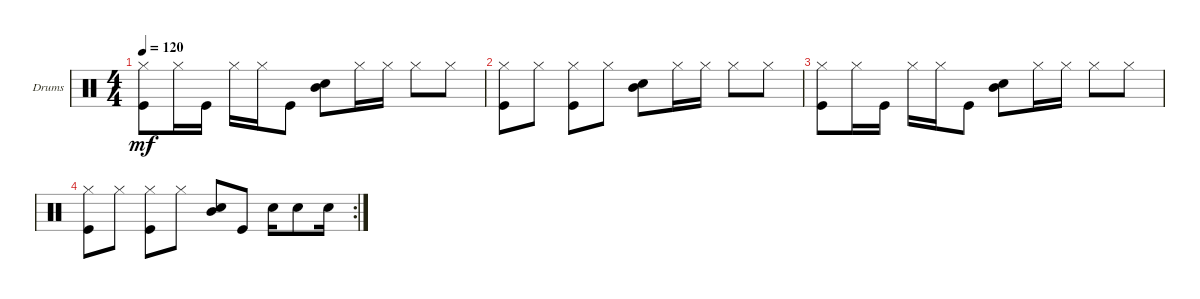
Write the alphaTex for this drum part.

\defaultSystemsLayout 4
\bracketExtendMode groupsimilarinstruments
\firstSystemTrackNameOrientation horizontal
\otherSystemsTrackNameOrientation horizontal
\track ("Drumkit" "Drums") {instrument percussion}
\staff {score}
\articulation defaults
\ts (4 4)
\tempo 120
\clef neutral
\ks c
("Kick (hit)" "Hi-Hat (closed)").8{dy mf} "Hi-Hat (closed)".16 "Kick (hit)".16 "Hi-Hat (closed)".16 "Hi-Hat (closed)".16 "Kick (hit)".8 ("Snare (hit) 2" "Mid Tom (hit)").8 "Hi-Hat (closed)".16 "Hi-Hat (closed)".16 "Hi-Hat (closed)".8 "Hi-Hat (closed)".8 |
("Kick (hit)" "Hi-Hat (closed)").8 "Hi-Hat (closed)".8 ("Kick (hit)" "Hi-Hat (closed)").8 "Hi-Hat (closed)".8 ("Snare (hit) 2" "Mid Tom (hit)").8 "Hi-Hat (closed)".16 "Hi-Hat (closed)".16 "Hi-Hat (closed)".8 "Hi-Hat (closed)".8 |
("Kick (hit)" "Hi-Hat (closed)").8 "Hi-Hat (closed)".16 "Kick (hit)".16 "Hi-Hat (closed)".16 "Hi-Hat (closed)".16 "Kick (hit)".8 ("Snare (hit) 2" "Mid Tom (hit)").8 "Hi-Hat (closed)".16 "Hi-Hat (closed)".16 "Hi-Hat (closed)".8 "Hi-Hat (closed)".8 |
\rc 2
("Kick (hit)" "Hi-Hat (closed)").8 "Hi-Hat (closed)".8 ("Kick (hit)" "Hi-Hat (closed)").8 "Hi-Hat (closed)".8 ("Snare (hit) 2" "Mid Tom (hit)").8 "Kick (hit)".8 "Snare (hit) 2".16 "Snare (hit) 2".8 "Snare (hit) 2".16
